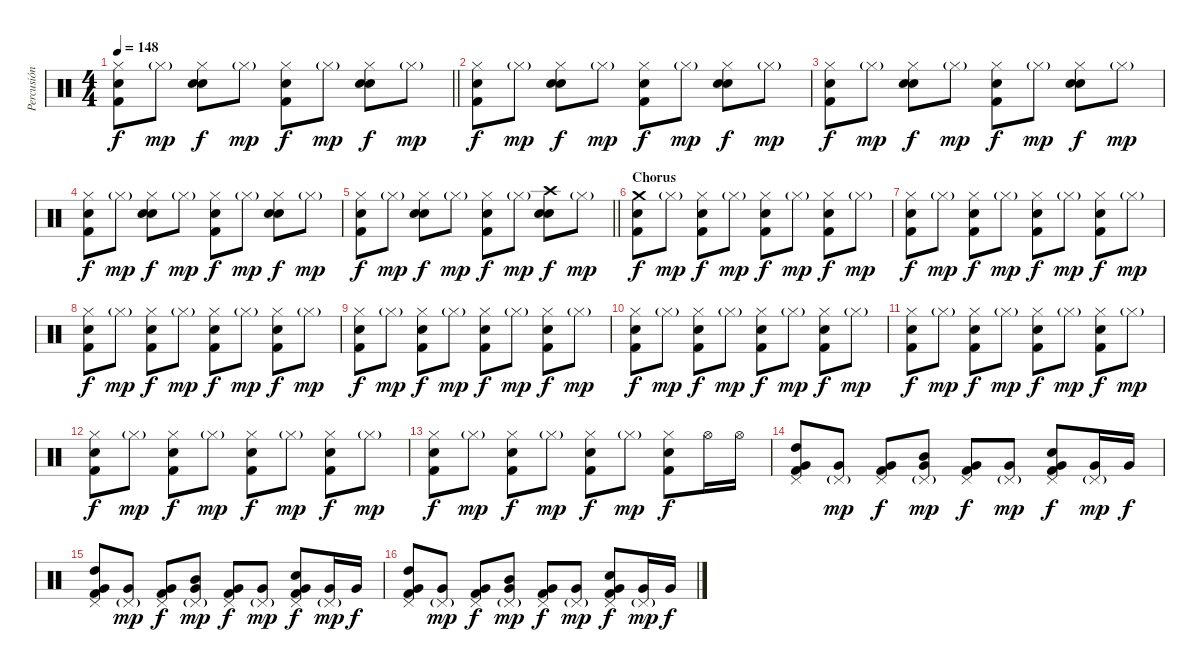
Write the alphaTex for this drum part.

\track ("Percusión" "Percusión") {instrument percussion}
\staff {score}
\articulation defaults
\ts (4 4)
\tempo 148
\clef neutral
\barLineRight lightlight
\ks c
("Hi-Hat (closed)" "Hand Clap (hit)" "Kick (hit) 2").8{dy f} "Hi-Hat (closed)"{g}.8{dy mp} ("Hi-Hat (closed)" "Hand Clap (hit)" "Snare (hit) 2").8{dy f} "Hi-Hat (closed)"{g}.8{dy mp} ("Hi-Hat (closed)" "Hand Clap (hit)" "Kick (hit) 2").8{dy f} "Hi-Hat (closed)"{g}.8{dy mp} ("Hi-Hat (closed)" "Hand Clap (hit)" "Snare (hit) 2").8{dy f} "Hi-Hat (closed)"{g}.8{dy mp} |
("Hi-Hat (closed)" "Hand Clap (hit)" "Kick (hit) 2").8{dy f} "Hi-Hat (closed)"{g}.8{dy mp} ("Hi-Hat (closed)" "Hand Clap (hit)" "Snare (hit) 2").8{dy f} "Hi-Hat (closed)"{g}.8{dy mp} ("Hi-Hat (closed)" "Hand Clap (hit)" "Kick (hit) 2").8{dy f} "Hi-Hat (closed)"{g}.8{dy mp} ("Hi-Hat (closed)" "Hand Clap (hit)" "Snare (hit) 2").8{dy f} "Hi-Hat (closed)"{g}.8{dy mp} |
("Hi-Hat (closed)" "Hand Clap (hit)" "Kick (hit) 2").8{dy f} "Hi-Hat (closed)"{g}.8{dy mp} ("Hi-Hat (closed)" "Hand Clap (hit)" "Snare (hit) 2").8{dy f} "Hi-Hat (closed)"{g}.8{dy mp} ("Hi-Hat (closed)" "Hand Clap (hit)" "Kick (hit) 2").8{dy f} "Hi-Hat (closed)"{g}.8{dy mp} ("Hi-Hat (closed)" "Hand Clap (hit)" "Snare (hit) 2").8{dy f} "Hi-Hat (closed)"{g}.8{dy mp} |
("Hi-Hat (closed)" "Hand Clap (hit)" "Kick (hit) 2").8{dy f} "Hi-Hat (closed)"{g}.8{dy mp} ("Hi-Hat (closed)" "Hand Clap (hit)" "Snare (hit) 2").8{dy f} "Hi-Hat (closed)"{g}.8{dy mp} ("Hi-Hat (closed)" "Hand Clap (hit)" "Kick (hit) 2").8{dy f} "Hi-Hat (closed)"{g}.8{dy mp} ("Hi-Hat (closed)" "Hand Clap (hit)" "Snare (hit) 2").8{dy f} "Hi-Hat (closed)"{g}.8{dy mp} |
\barLineRight lightlight
("Hi-Hat (closed)" "Hand Clap (hit)" "Kick (hit) 2").8{dy f} "Hi-Hat (closed)"{g}.8{dy mp} ("Hi-Hat (closed)" "Hand Clap (hit)" "Snare (hit) 2").8{dy f} "Hi-Hat (closed)"{g}.8{dy mp} ("Hi-Hat (closed)" "Hand Clap (hit)" "Kick (hit) 2").8{dy f} "Hi-Hat (closed)"{g}.8{dy mp} ("Crash high (hit)" "Hand Clap (hit)" "Snare (hit) 2").8{dy f} "Hi-Hat (closed)"{g}.8{dy mp} |
\section ("" "Chorus")
("Crash medium (hit)" "Snare (hit) 2" "Kick (hit) 2").8{dy f} "Hi-Hat (closed)"{g}.8{dy mp} ("Hi-Hat (closed)" "Snare (hit) 2" "Kick (hit) 2").8{dy f} "Hi-Hat (closed)"{g}.8{dy mp} ("Hi-Hat (closed)" "Snare (hit) 2" "Kick (hit) 2").8{dy f} "Hi-Hat (closed)"{g}.8{dy mp} ("Hi-Hat (closed)" "Snare (hit) 2" "Kick (hit) 2").8{dy f} "Hi-Hat (closed)"{g}.8{dy mp} |
("Hi-Hat (closed)" "Snare (hit) 2" "Kick (hit) 2").8{dy f} "Hi-Hat (closed)"{g}.8{dy mp} ("Hi-Hat (closed)" "Snare (hit) 2" "Kick (hit) 2").8{dy f} "Hi-Hat (closed)"{g}.8{dy mp} ("Hi-Hat (closed)" "Snare (hit) 2" "Kick (hit) 2").8{dy f} "Hi-Hat (closed)"{g}.8{dy mp} ("Hi-Hat (closed)" "Snare (hit) 2" "Kick (hit) 2").8{dy f} "Hi-Hat (closed)"{g}.8{dy mp} |
("Hi-Hat (closed)" "Snare (hit) 2" "Kick (hit) 2").8{dy f} "Hi-Hat (closed)"{g}.8{dy mp} ("Hi-Hat (closed)" "Snare (hit) 2" "Kick (hit) 2").8{dy f} "Hi-Hat (closed)"{g}.8{dy mp} ("Hi-Hat (closed)" "Snare (hit) 2" "Kick (hit) 2").8{dy f} "Hi-Hat (closed)"{g}.8{dy mp} ("Hi-Hat (closed)" "Snare (hit) 2" "Kick (hit) 2").8{dy f} "Hi-Hat (closed)"{g}.8{dy mp} |
("Hi-Hat (closed)" "Snare (hit) 2" "Kick (hit) 2").8{dy f} "Hi-Hat (closed)"{g}.8{dy mp} ("Hi-Hat (closed)" "Snare (hit) 2" "Kick (hit) 2").8{dy f} "Hi-Hat (closed)"{g}.8{dy mp} ("Hi-Hat (closed)" "Snare (hit) 2" "Kick (hit) 2").8{dy f} "Hi-Hat (closed)"{g}.8{dy mp} ("Hi-Hat (closed)" "Snare (hit) 2" "Kick (hit) 2").8{dy f} "Hi-Hat (closed)"{g}.8{dy mp} |
("Hi-Hat (closed)" "Snare (hit) 2" "Kick (hit) 2").8{dy f} "Hi-Hat (closed)"{g}.8{dy mp} ("Hi-Hat (closed)" "Snare (hit) 2" "Kick (hit) 2").8{dy f} "Hi-Hat (closed)"{g}.8{dy mp} ("Hi-Hat (closed)" "Snare (hit) 2" "Kick (hit) 2").8{dy f} "Hi-Hat (closed)"{g}.8{dy mp} ("Hi-Hat (closed)" "Snare (hit) 2" "Kick (hit) 2").8{dy f} "Hi-Hat (closed)"{g}.8{dy mp} |
("Hi-Hat (closed)" "Snare (hit) 2" "Kick (hit) 2").8{dy f} "Hi-Hat (closed)"{g}.8{dy mp} ("Hi-Hat (closed)" "Snare (hit) 2" "Kick (hit) 2").8{dy f} "Hi-Hat (closed)"{g}.8{dy mp} ("Hi-Hat (closed)" "Snare (hit) 2" "Kick (hit) 2").8{dy f} "Hi-Hat (closed)"{g}.8{dy mp} ("Hi-Hat (closed)" "Snare (hit) 2" "Kick (hit) 2").8{dy f} "Hi-Hat (closed)"{g}.8{dy mp} |
("Hi-Hat (closed)" "Snare (hit) 2" "Kick (hit) 2").8{dy f} "Hi-Hat (closed)"{g}.8{dy mp} ("Hi-Hat (closed)" "Snare (hit) 2" "Kick (hit) 2").8{dy f} "Hi-Hat (closed)"{g}.8{dy mp} ("Hi-Hat (closed)" "Snare (hit) 2" "Kick (hit) 2").8{dy f} "Hi-Hat (closed)"{g}.8{dy mp} ("Hi-Hat (closed)" "Snare (hit) 2" "Kick (hit) 2").8{dy f} "Hi-Hat (closed)"{g}.8{dy mp} |
("Hi-Hat (closed)" "Snare (hit) 2" "Kick (hit) 2").8{dy f} "Hi-Hat (closed)"{g}.8{dy mp} ("Hi-Hat (closed)" "Snare (hit) 2" "Kick (hit) 2").8{dy f} "Hi-Hat (closed)"{g}.8{dy mp} ("Hi-Hat (closed)" "Snare (hit) 2" "Kick (hit) 2").8{dy f} "Hi-Hat (closed)"{g}.8{dy mp} ("Hi-Hat (closed)" "Snare (hit) 2" "Kick (hit) 2").8{dy f} "Hi-Hat (open)".16 "Hi-Hat (open)".16 |
("Pedal Hi-Hat (hit)" "Very Low Tom (hit)" "High Tom (hit)" "Kick (hit) 2").8 ("Pedal Hi-Hat (hit)"{g} "Very Low Tom (hit)").8{dy mp} ("Pedal Hi-Hat (hit)" "Very Low Tom (hit)" "Kick (hit) 2").8{dy f} ("Pedal Hi-Hat (hit)"{g} "Very Low Tom (hit)" "Mid Tom (hit)").8{dy mp} ("Pedal Hi-Hat (hit)" "Very Low Tom (hit)" "Kick (hit) 2").8{dy f} ("Pedal Hi-Hat (hit)"{g} "Very Low Tom (hit)").8{dy mp} ("Pedal Hi-Hat (hit)" "Very Low Tom (hit)" "Snare (hit) 2" "Kick (hit) 2").8{dy f} ("Pedal Hi-Hat (hit)"{g} "Very Low Tom (hit)").16{dy mp} "Very Low Tom (hit)".16{dy f} |
("Pedal Hi-Hat (hit)" "Very Low Tom (hit)" "High Tom (hit)" "Kick (hit) 2").8 ("Pedal Hi-Hat (hit)"{g} "Very Low Tom (hit)").8{dy mp} ("Pedal Hi-Hat (hit)" "Very Low Tom (hit)" "Kick (hit) 2").8{dy f} ("Pedal Hi-Hat (hit)"{g} "Very Low Tom (hit)" "Mid Tom (hit)").8{dy mp} ("Pedal Hi-Hat (hit)" "Very Low Tom (hit)" "Kick (hit) 2").8{dy f} ("Pedal Hi-Hat (hit)"{g} "Very Low Tom (hit)").8{dy mp} ("Pedal Hi-Hat (hit)" "Very Low Tom (hit)" "Snare (hit) 2" "Kick (hit) 2").8{dy f} ("Pedal Hi-Hat (hit)"{g} "Very Low Tom (hit)").16{dy mp} "Very Low Tom (hit)".16{dy f} |
("Pedal Hi-Hat (hit)" "Very Low Tom (hit)" "High Tom (hit)" "Kick (hit) 2").8 ("Pedal Hi-Hat (hit)"{g} "Very Low Tom (hit)").8{dy mp} ("Pedal Hi-Hat (hit)" "Very Low Tom (hit)" "Kick (hit) 2").8{dy f} ("Pedal Hi-Hat (hit)"{g} "Very Low Tom (hit)" "Mid Tom (hit)").8{dy mp} ("Pedal Hi-Hat (hit)" "Very Low Tom (hit)" "Kick (hit) 2").8{dy f} ("Pedal Hi-Hat (hit)"{g} "Very Low Tom (hit)").8{dy mp} ("Pedal Hi-Hat (hit)" "Very Low Tom (hit)" "Snare (hit) 2" "Kick (hit) 2").8{dy f} ("Pedal Hi-Hat (hit)"{g} "Very Low Tom (hit)").16{dy mp} "Very Low Tom (hit)".16{dy f}
